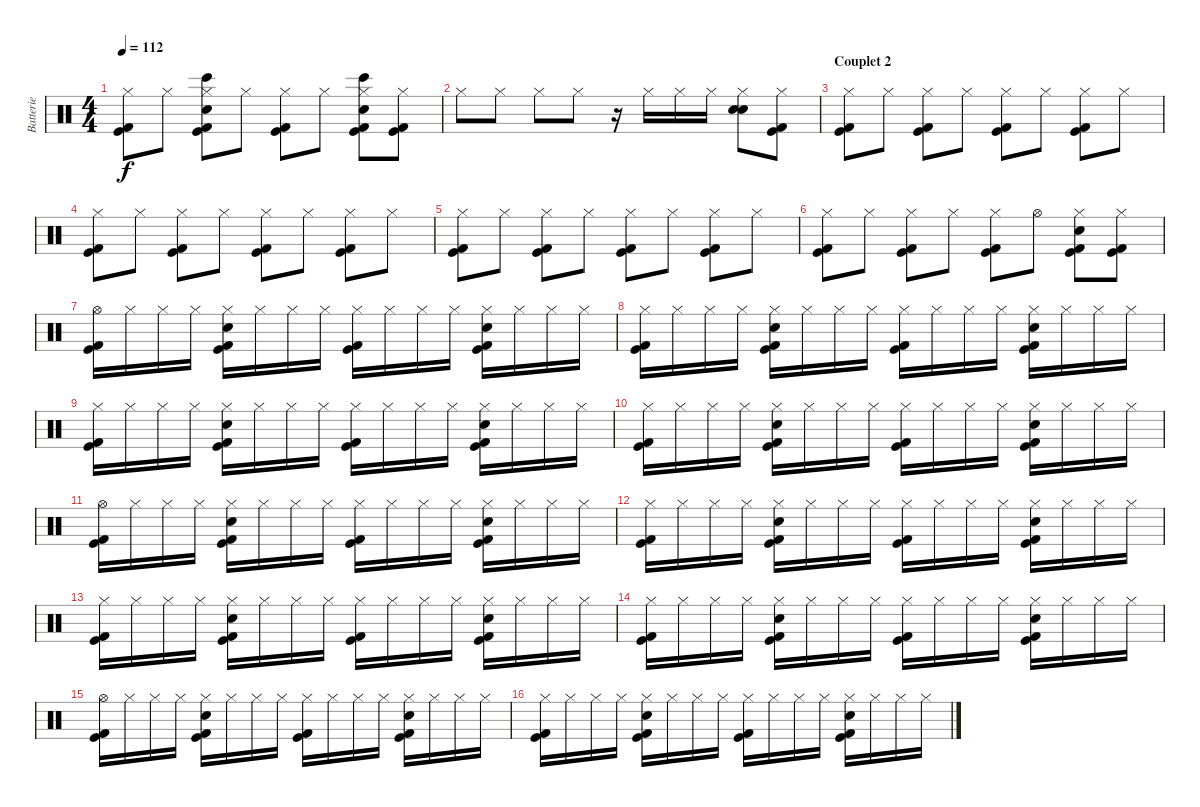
\track ("Batterie" "Batterie") {instrument percussion}
\staff {score}
\articulation defaults
\ts (4 4)
\tempo 112
\clef neutral
\ks c
("Hi-Hat (closed)" "Kick (hit)" "Kick (hit) 2").8{dy f} "Hi-Hat (closed)".8 ("Hi-Hat (closed)" "Electric Snare (hit)" "Bongo High (hit)" "Kick (hit)" "Kick (hit) 2").8 "Hi-Hat (closed)".8 ("Hi-Hat (closed)" "Kick (hit)" "Kick (hit) 2").8 "Hi-Hat (closed)".8 ("Hi-Hat (closed)" "Electric Snare (hit)" "Bongo High (hit)" "Kick (hit)" "Kick (hit) 2").8 ("Hi-Hat (closed)" "Kick (hit)" "Kick (hit) 2").8 |
"Hi-Hat (closed)".8 "Hi-Hat (closed)".8 "Hi-Hat (closed)".8 "Hi-Hat (closed)".8 r.16 "Hi-Hat (closed)".16 "Hi-Hat (closed)".16 "Hi-Hat (closed)".16 ("Hi-Hat (closed)" "Electric Snare (hit)" "Hand Clap (hit)").8 ("Hi-Hat (closed)" "Kick (hit)" "Kick (hit) 2").8 |
\section ("" "Couplet 2")
("Hi-Hat (closed)" "Kick (hit)" "Kick (hit) 2").8 "Hi-Hat (closed)".8 ("Hi-Hat (closed)" "Kick (hit)" "Kick (hit) 2").8 "Hi-Hat (closed)".8 ("Hi-Hat (closed)" "Kick (hit)" "Kick (hit) 2").8 "Hi-Hat (closed)".8 ("Hi-Hat (closed)" "Kick (hit)" "Kick (hit) 2").8 "Hi-Hat (closed)".8 |
("Hi-Hat (closed)" "Kick (hit)" "Kick (hit) 2").8 "Hi-Hat (closed)".8 ("Hi-Hat (closed)" "Kick (hit)" "Kick (hit) 2").8 "Hi-Hat (closed)".8 ("Hi-Hat (closed)" "Kick (hit)" "Kick (hit) 2").8 "Hi-Hat (closed)".8 ("Hi-Hat (closed)" "Kick (hit)" "Kick (hit) 2").8 "Hi-Hat (closed)".8 |
("Hi-Hat (closed)" "Kick (hit)" "Kick (hit) 2").8 "Hi-Hat (closed)".8 ("Hi-Hat (closed)" "Kick (hit)" "Kick (hit) 2").8 "Hi-Hat (closed)".8 ("Hi-Hat (closed)" "Kick (hit)" "Kick (hit) 2").8 "Hi-Hat (closed)".8 ("Hi-Hat (closed)" "Kick (hit)" "Kick (hit) 2").8 "Hi-Hat (closed)".8 |
("Hi-Hat (closed)" "Kick (hit)" "Kick (hit) 2").8 "Hi-Hat (closed)".8 ("Hi-Hat (closed)" "Kick (hit)" "Kick (hit) 2").8 "Hi-Hat (closed)".8 ("Hi-Hat (closed)" "Kick (hit)" "Kick (hit) 2").8 "Hi-Hat (open)".8 ("Hi-Hat (closed)" "Hand Clap (hit)" "Kick (hit)" "Kick (hit) 2").8 ("Hi-Hat (closed)" "Kick (hit)" "Kick (hit) 2").8 |
("Hi-Hat (open)" "Kick (hit)" "Kick (hit) 2").16 "Hi-Hat (closed)".16 "Hi-Hat (closed)".16 "Hi-Hat (closed)".16 ("Hi-Hat (closed)" "Hand Clap (hit)" "Kick (hit)" "Kick (hit) 2").16 "Hi-Hat (closed)".16 "Hi-Hat (closed)".16 "Hi-Hat (closed)".16 ("Hi-Hat (closed)" "Kick (hit)" "Kick (hit) 2").16 "Hi-Hat (closed)".16 "Hi-Hat (closed)".16 "Hi-Hat (closed)".16 ("Hi-Hat (closed)" "Hand Clap (hit)" "Kick (hit)" "Kick (hit) 2").16 "Hi-Hat (closed)".16 "Hi-Hat (closed)".16 "Hi-Hat (closed)".16 |
("Hi-Hat (closed)" "Kick (hit)" "Kick (hit) 2").16 "Hi-Hat (closed)".16 "Hi-Hat (closed)".16 "Hi-Hat (closed)".16 ("Hi-Hat (closed)" "Hand Clap (hit)" "Kick (hit)" "Kick (hit) 2").16 "Hi-Hat (closed)".16 "Hi-Hat (closed)".16 "Hi-Hat (closed)".16 ("Hi-Hat (closed)" "Kick (hit)" "Kick (hit) 2").16 "Hi-Hat (closed)".16 "Hi-Hat (closed)".16 "Hi-Hat (closed)".16 ("Hi-Hat (closed)" "Hand Clap (hit)" "Kick (hit)" "Kick (hit) 2").16 "Hi-Hat (closed)".16 "Hi-Hat (closed)".16 "Hi-Hat (closed)".16 |
("Hi-Hat (closed)" "Kick (hit)" "Kick (hit) 2").16 "Hi-Hat (closed)".16 "Hi-Hat (closed)".16 "Hi-Hat (closed)".16 ("Hi-Hat (closed)" "Hand Clap (hit)" "Kick (hit)" "Kick (hit) 2").16 "Hi-Hat (closed)".16 "Hi-Hat (closed)".16 "Hi-Hat (closed)".16 ("Hi-Hat (closed)" "Kick (hit)" "Kick (hit) 2").16 "Hi-Hat (closed)".16 "Hi-Hat (closed)".16 "Hi-Hat (closed)".16 ("Hi-Hat (closed)" "Hand Clap (hit)" "Kick (hit)" "Kick (hit) 2").16 "Hi-Hat (closed)".16 "Hi-Hat (closed)".16 "Hi-Hat (closed)".16 |
("Hi-Hat (closed)" "Kick (hit)" "Kick (hit) 2").16 "Hi-Hat (closed)".16 "Hi-Hat (closed)".16 "Hi-Hat (closed)".16 ("Hi-Hat (closed)" "Hand Clap (hit)" "Kick (hit)" "Kick (hit) 2").16 "Hi-Hat (closed)".16 "Hi-Hat (closed)".16 "Hi-Hat (closed)".16 ("Hi-Hat (closed)" "Kick (hit)" "Kick (hit) 2").16 "Hi-Hat (closed)".16 "Hi-Hat (closed)".16 "Hi-Hat (closed)".16 ("Hi-Hat (closed)" "Hand Clap (hit)" "Kick (hit)" "Kick (hit) 2").16 "Hi-Hat (closed)".16 "Hi-Hat (closed)".16 "Hi-Hat (closed)".16 |
("Hi-Hat (open)" "Kick (hit)" "Kick (hit) 2").16 "Hi-Hat (closed)".16 "Hi-Hat (closed)".16 "Hi-Hat (closed)".16 ("Hi-Hat (closed)" "Hand Clap (hit)" "Kick (hit)" "Kick (hit) 2").16 "Hi-Hat (closed)".16 "Hi-Hat (closed)".16 "Hi-Hat (closed)".16 ("Hi-Hat (closed)" "Kick (hit)" "Kick (hit) 2").16 "Hi-Hat (closed)".16 "Hi-Hat (closed)".16 "Hi-Hat (closed)".16 ("Hi-Hat (closed)" "Hand Clap (hit)" "Kick (hit)" "Kick (hit) 2").16 "Hi-Hat (closed)".16 "Hi-Hat (closed)".16 "Hi-Hat (closed)".16 |
("Hi-Hat (closed)" "Kick (hit)" "Kick (hit) 2").16 "Hi-Hat (closed)".16 "Hi-Hat (closed)".16 "Hi-Hat (closed)".16 ("Hi-Hat (closed)" "Hand Clap (hit)" "Kick (hit)" "Kick (hit) 2").16 "Hi-Hat (closed)".16 "Hi-Hat (closed)".16 "Hi-Hat (closed)".16 ("Hi-Hat (closed)" "Kick (hit)" "Kick (hit) 2").16 "Hi-Hat (closed)".16 "Hi-Hat (closed)".16 "Hi-Hat (closed)".16 ("Hi-Hat (closed)" "Hand Clap (hit)" "Kick (hit)" "Kick (hit) 2").16 "Hi-Hat (closed)".16 "Hi-Hat (closed)".16 "Hi-Hat (closed)".16 |
("Hi-Hat (closed)" "Kick (hit)" "Kick (hit) 2").16 "Hi-Hat (closed)".16 "Hi-Hat (closed)".16 "Hi-Hat (closed)".16 ("Hi-Hat (closed)" "Hand Clap (hit)" "Kick (hit)" "Kick (hit) 2").16 "Hi-Hat (closed)".16 "Hi-Hat (closed)".16 "Hi-Hat (closed)".16 ("Hi-Hat (closed)" "Kick (hit)" "Kick (hit) 2").16 "Hi-Hat (closed)".16 "Hi-Hat (closed)".16 "Hi-Hat (closed)".16 ("Hi-Hat (closed)" "Hand Clap (hit)" "Kick (hit)" "Kick (hit) 2").16 "Hi-Hat (closed)".16 "Hi-Hat (closed)".16 "Hi-Hat (closed)".16 |
("Hi-Hat (closed)" "Kick (hit)" "Kick (hit) 2").16 "Hi-Hat (closed)".16 "Hi-Hat (closed)".16 "Hi-Hat (closed)".16 ("Hi-Hat (closed)" "Hand Clap (hit)" "Kick (hit)" "Kick (hit) 2").16 "Hi-Hat (closed)".16 "Hi-Hat (closed)".16 "Hi-Hat (closed)".16 ("Hi-Hat (closed)" "Kick (hit)" "Kick (hit) 2").16 "Hi-Hat (closed)".16 "Hi-Hat (closed)".16 "Hi-Hat (closed)".16 ("Hi-Hat (closed)" "Hand Clap (hit)" "Kick (hit)" "Kick (hit) 2").16 "Hi-Hat (closed)".16 "Hi-Hat (closed)".16 "Hi-Hat (closed)".16 |
("Hi-Hat (open)" "Kick (hit)" "Kick (hit) 2").16 "Hi-Hat (closed)".16 "Hi-Hat (closed)".16 "Hi-Hat (closed)".16 ("Hi-Hat (closed)" "Hand Clap (hit)" "Kick (hit)" "Kick (hit) 2").16 "Hi-Hat (closed)".16 "Hi-Hat (closed)".16 "Hi-Hat (closed)".16 ("Hi-Hat (closed)" "Kick (hit)" "Kick (hit) 2").16 "Hi-Hat (closed)".16 "Hi-Hat (closed)".16 "Hi-Hat (closed)".16 ("Hi-Hat (closed)" "Hand Clap (hit)" "Kick (hit)" "Kick (hit) 2").16 "Hi-Hat (closed)".16 "Hi-Hat (closed)".16 "Hi-Hat (closed)".16 |
("Hi-Hat (closed)" "Kick (hit)" "Kick (hit) 2").16 "Hi-Hat (closed)".16 "Hi-Hat (closed)".16 "Hi-Hat (closed)".16 ("Hi-Hat (closed)" "Hand Clap (hit)" "Kick (hit)" "Kick (hit) 2").16 "Hi-Hat (closed)".16 "Hi-Hat (closed)".16 "Hi-Hat (closed)".16 ("Hi-Hat (closed)" "Kick (hit)" "Kick (hit) 2").16 "Hi-Hat (closed)".16 "Hi-Hat (closed)".16 "Hi-Hat (closed)".16 ("Hi-Hat (closed)" "Hand Clap (hit)" "Kick (hit)" "Kick (hit) 2").16 "Hi-Hat (closed)".16 "Hi-Hat (closed)".16 "Hi-Hat (closed)".16
